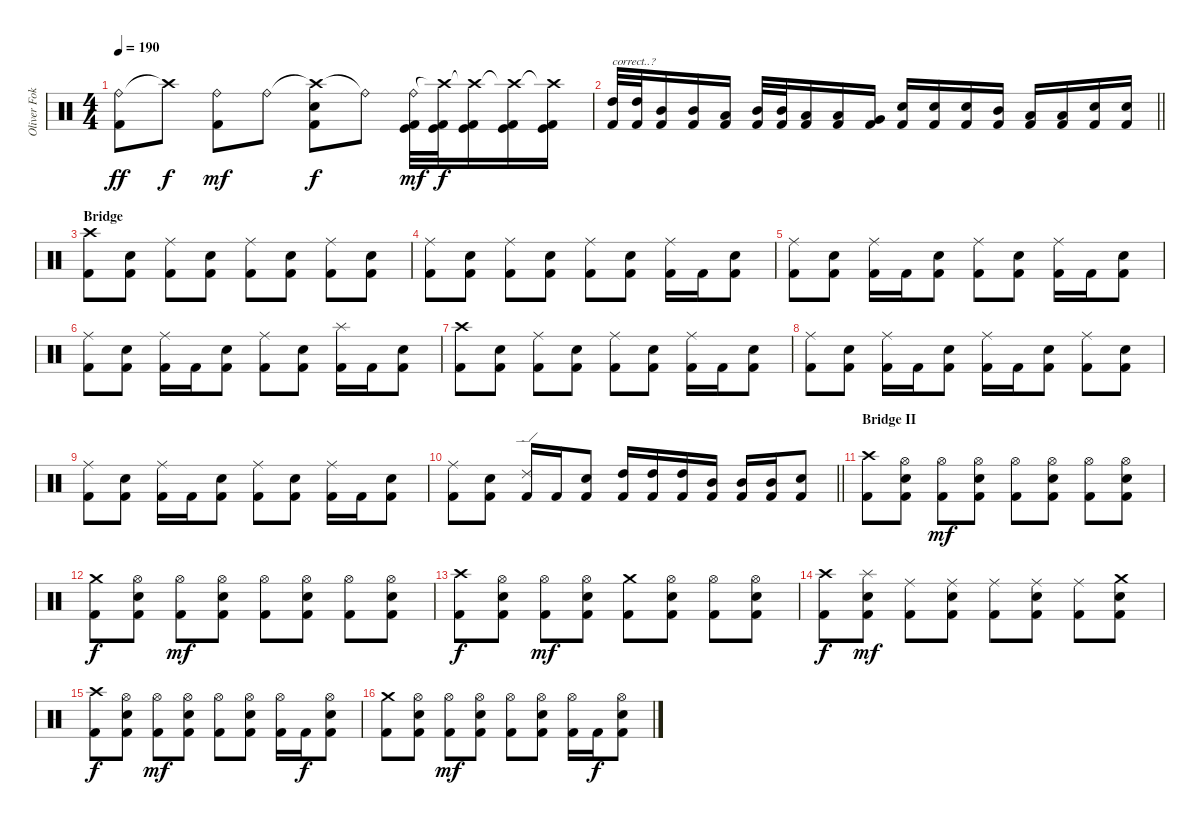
\track ("Oliver Fokin" "Oliver Fok") {instrument percussion}
\staff {score}
\articulation defaults
\ts (4 4)
\tempo 190
\clef neutral
\ks c
("Ride (bell)" "Kick (hit) 2").8{dy ff} "Crash high (hit)"{t}.8{dy f} ("Ride (bell)" "Kick (hit) 2").8{dy mf} "Ride (bell)".8 ("Crash high (hit)"{t} "Electric Snare (hit)" "Kick (hit) 2").8{dy f} "Ride (bell)"{t}.8 ("Ride (bell)" "Kick (hit)" "Kick (hit) 2").32{dy mf} ("Crash high (hit)"{t} "Kick (hit)" "Kick (hit) 2").32{dy f} ("Crash high (hit)"{t} "Kick (hit)" "Kick (hit) 2").16 ("Crash high (hit)"{t} "Kick (hit)" "Kick (hit) 2").16 ("Crash high (hit)"{t} "Kick (hit)" "Kick (hit) 2").16 |
\barLineRight lightlight
("High Tom (hit)" "Kick (hit) 2").32{txt "correct..?"} ("High Tom (hit)" "Kick (hit) 2").32 ("Mid Tom (hit)" "Kick (hit) 2").16 ("Mid Tom (hit)" "Kick (hit) 2").16 ("Low Tom (hit)" "Kick (hit) 2").16 ("Mid Tom (hit)" "Kick (hit) 2").32 ("Mid Tom (hit)" "Kick (hit) 2").32 ("Low Tom (hit)" "Kick (hit) 2").16 ("Low Tom (hit)" "Kick (hit) 2").16 ("Very Low Tom (hit)" "Kick (hit) 2").16 ("Electric Snare (hit)" "Kick (hit) 2").16 ("Electric Snare (hit)" "Kick (hit) 2").16 ("Electric Snare (hit)" "Kick (hit) 2").16 ("Mid Tom (hit)" "Kick (hit) 2").16 ("Low Tom (hit)" "Kick (hit) 2").16 ("Low Tom (hit)" "Kick (hit) 2").16 ("Electric Snare (hit)" "Kick (hit) 2").16 ("Electric Snare (hit)" "Kick (hit) 2").16 |
\section ("" "Bridge")
("Crash high (hit)" "Kick (hit) 2").8 ("Electric Snare (hit)" "Kick (hit) 2").8 ("Ride (middle)" "Kick (hit) 2").8 ("Electric Snare (hit)" "Kick (hit) 2").8 ("Ride (middle)" "Kick (hit) 2").8 ("Electric Snare (hit)" "Kick (hit) 2").8 ("Ride (middle)" "Kick (hit) 2").8 ("Electric Snare (hit)" "Kick (hit) 2").8 |
("Ride (middle)" "Kick (hit) 2").8 ("Electric Snare (hit)" "Kick (hit) 2").8 ("Ride (middle)" "Kick (hit) 2").8 ("Electric Snare (hit)" "Kick (hit) 2").8 ("Ride (middle)" "Kick (hit) 2").8 ("Electric Snare (hit)" "Kick (hit) 2").8 ("Ride (middle)" "Kick (hit) 2").16 "Kick (hit) 2".16 ("Electric Snare (hit)" "Kick (hit) 2").8 |
("Ride (middle)" "Kick (hit) 2").8 ("Electric Snare (hit)" "Kick (hit) 2").8 ("Ride (middle)" "Kick (hit) 2").16 "Kick (hit) 2".16 ("Electric Snare (hit)" "Kick (hit) 2").8 ("Ride (middle)" "Kick (hit) 2").8 ("Electric Snare (hit)" "Kick (hit) 2").8 ("Ride (middle)" "Kick (hit) 2").16 "Kick (hit) 2".16 ("Electric Snare (hit)" "Kick (hit) 2").8 |
("Ride (middle)" "Kick (hit) 2").8 ("Electric Snare (hit)" "Kick (hit) 2").8 ("Ride (middle)" "Kick (hit) 2").16 "Kick (hit) 2".16 ("Electric Snare (hit)" "Kick (hit) 2").8 ("Ride (middle)" "Kick (hit) 2").8 ("Electric Snare (hit)" "Kick (hit) 2").8 ("Splash (hit)" "Kick (hit) 2").16 "Kick (hit) 2".16 ("Electric Snare (hit)" "Kick (hit) 2").8 |
("Crash high (hit)" "Kick (hit) 2").8 ("Electric Snare (hit)" "Kick (hit) 2").8 ("Ride (middle)" "Kick (hit) 2").8 ("Electric Snare (hit)" "Kick (hit) 2").8 ("Ride (middle)" "Kick (hit) 2").8 ("Electric Snare (hit)" "Kick (hit) 2").8 ("Ride (middle)" "Kick (hit) 2").16 "Kick (hit) 2".16 ("Electric Snare (hit)" "Kick (hit) 2").8 |
("Ride (middle)" "Kick (hit) 2").8 ("Electric Snare (hit)" "Kick (hit) 2").8 ("Ride (middle)" "Kick (hit) 2").16 "Kick (hit) 2".16 ("Electric Snare (hit)" "Kick (hit) 2").8 ("Ride (middle)" "Kick (hit) 2").16 "Kick (hit) 2".16 ("Electric Snare (hit)" "Kick (hit) 2").8 ("Ride (middle)" "Kick (hit) 2").8 ("Electric Snare (hit)" "Kick (hit) 2").8 |
("Ride (middle)" "Kick (hit) 2").8 ("Electric Snare (hit)" "Kick (hit) 2").8 ("Ride (middle)" "Kick (hit) 2").16 "Kick (hit) 2".16 ("Electric Snare (hit)" "Kick (hit) 2").8 ("Ride (middle)" "Kick (hit) 2").8 ("Electric Snare (hit)" "Kick (hit) 2").8 ("Ride (middle)" "Kick (hit) 2").16 "Kick (hit) 2".16 ("Electric Snare (hit)" "Kick (hit) 2").8 |
\barLineRight lightlight
("Ride (middle)" "Kick (hit) 2").8 ("Electric Snare (hit)" "Kick (hit) 2").8 ("Ride (edge) 2" "Kick (hit) 2").16 "Kick (hit) 2".16 ("Electric Snare (hit)" "Kick (hit) 2").8 ("High Tom (hit)" "Kick (hit) 2").16 ("High Tom (hit)" "Kick (hit) 2").16 ("High Tom (hit)" "Kick (hit) 2").16 ("Mid Tom (hit)" "Kick (hit) 2").16 ("Mid Tom (hit)" "Kick (hit) 2").16 ("Mid Tom (hit)" "Kick (hit) 2").16 ("Electric Snare (hit)" "Kick (hit) 2").8 |
\section ("" "Bridge II")
("Crash high (hit)" "Kick (hit) 2").8 ("Hi-Hat (open)" "Electric Snare (hit)" "Kick (hit) 2").8 ("Hi-Hat (open)" "Kick (hit) 2").8{dy mf} ("Hi-Hat (open)" "Electric Snare (hit)" "Kick (hit) 2").8 ("Hi-Hat (open)" "Kick (hit) 2").8 ("Hi-Hat (open)" "Electric Snare (hit)" "Kick (hit) 2").8 ("Hi-Hat (open)" "Kick (hit) 2").8 ("Hi-Hat (open)" "Electric Snare (hit)" "Kick (hit) 2").8 |
("Crash medium (hit)" "Kick (hit) 2").8{dy f} ("Hi-Hat (open)" "Electric Snare (hit)" "Kick (hit) 2").8 ("Hi-Hat (open)" "Kick (hit) 2").8{dy mf} ("Hi-Hat (open)" "Electric Snare (hit)" "Kick (hit) 2").8 ("Hi-Hat (open)" "Kick (hit) 2").8 ("Hi-Hat (open)" "Electric Snare (hit)" "Kick (hit) 2").8 ("Hi-Hat (open)" "Kick (hit) 2").8 ("Hi-Hat (open)" "Electric Snare (hit)" "Kick (hit) 2").8 |
("Crash high (hit)" "Kick (hit) 2").8{dy f} ("Hi-Hat (open)" "Electric Snare (hit)" "Kick (hit) 2").8 ("Hi-Hat (open)" "Kick (hit) 2").8{dy mf} ("Hi-Hat (open)" "Electric Snare (hit)" "Kick (hit) 2").8 ("Crash medium (hit)" "Kick (hit) 2").8 ("Hi-Hat (open)" "Electric Snare (hit)" "Kick (hit) 2").8 ("Hi-Hat (open)" "Kick (hit) 2").8 ("Hi-Hat (open)" "Electric Snare (hit)" "Kick (hit) 2").8 |
("Crash high (hit)" "Kick (hit) 2").8{dy f} ("Splash (hit)" "Electric Snare (hit)" "Kick (hit) 2").8{dy mf} ("Ride (middle)" "Kick (hit) 2").8 ("Ride (middle)" "Electric Snare (hit)" "Kick (hit) 2").8 ("Ride (middle)" "Kick (hit) 2").8 ("Ride (middle)" "Electric Snare (hit)" "Kick (hit) 2").8 ("Ride (middle)" "Kick (hit) 2").8 ("Crash medium (hit)" "Electric Snare (hit)" "Kick (hit) 2").8 |
("Crash high (hit)" "Kick (hit) 2").8{dy f} ("Hi-Hat (open)" "Electric Snare (hit)" "Kick (hit) 2").8 ("Hi-Hat (open)" "Kick (hit) 2").8{dy mf} ("Hi-Hat (open)" "Electric Snare (hit)" "Kick (hit) 2").8 ("Hi-Hat (open)" "Kick (hit) 2").8 ("Hi-Hat (open)" "Electric Snare (hit)" "Kick (hit) 2").8 ("Hi-Hat (open)" "Kick (hit) 2").16 "Kick (hit) 2".16{dy f} ("Hi-Hat (open)" "Electric Snare (hit)" "Kick (hit) 2").8 |
("Crash medium (hit)" "Kick (hit) 2").8 ("Hi-Hat (open)" "Electric Snare (hit)" "Kick (hit) 2").8 ("Hi-Hat (open)" "Kick (hit) 2").8{dy mf} ("Hi-Hat (open)" "Electric Snare (hit)" "Kick (hit) 2").8 ("Hi-Hat (open)" "Kick (hit) 2").8 ("Hi-Hat (open)" "Electric Snare (hit)" "Kick (hit) 2").8 ("Hi-Hat (open)" "Kick (hit) 2").16 "Kick (hit) 2".16{dy f} ("Hi-Hat (open)" "Electric Snare (hit)" "Kick (hit) 2").8
